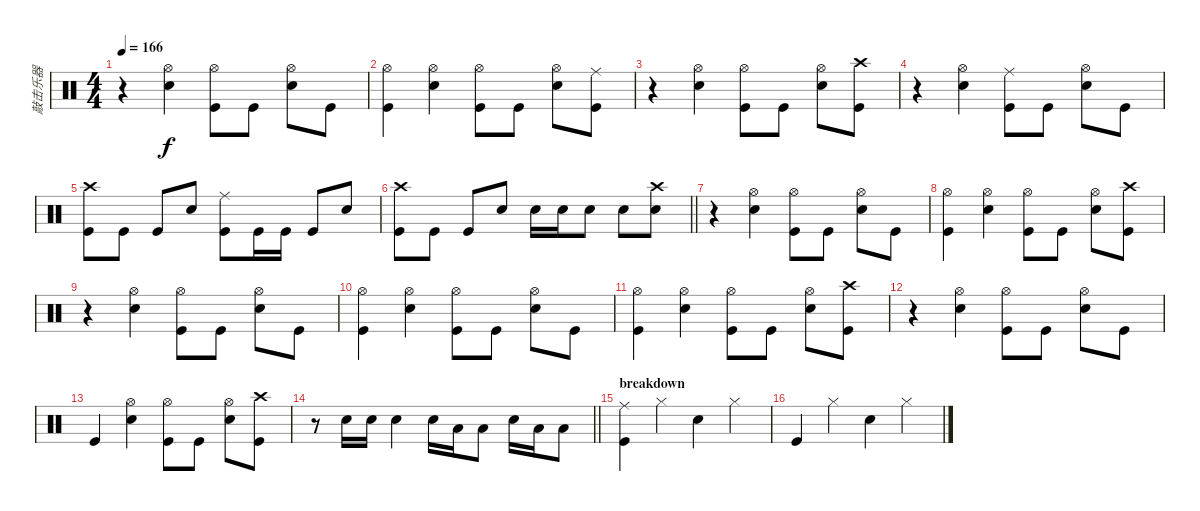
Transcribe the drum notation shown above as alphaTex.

\track ("敲击乐器" "敲击乐器") {instrument percussion}
\staff {score}
\articulation defaults
\ts (4 4)
\tempo 166
\clef neutral
\ks c
r.4{dy f} ("Hi-Hat (open)" "Snare (hit) 2").4 ("Kick (hit)" "Hi-Hat (open)").8 "Kick (hit)".8 ("Snare (hit) 2" "Hi-Hat (open)").8 "Kick (hit)".8 |
("Kick (hit)" "Hi-Hat (open)").4 ("Hi-Hat (open)" "Snare (hit) 2").4 ("Kick (hit)" "Hi-Hat (open)").8 "Kick (hit)".8 ("Snare (hit) 2" "Hi-Hat (open)").8 ("Kick (hit)" "Ride (middle)").8 |
r.4 ("Hi-Hat (open)" "Snare (hit) 2").4 ("Kick (hit)" "Hi-Hat (open)").8 "Kick (hit)".8 ("Snare (hit) 2" "Hi-Hat (open)").8 ("Kick (hit)" "Crash high (hit)").8 |
r.4 ("Hi-Hat (open)" "Snare (hit) 2").4 ("Ride (middle)" "Kick (hit)").8 "Kick (hit)".8 ("Snare (hit) 2" "Hi-Hat (open)").8 "Kick (hit)".8 |
("Kick (hit)" "Crash high (hit)").8 "Kick (hit)".8 "Kick (hit)".8 "Snare (hit) 2".8 ("Kick (hit)" "Ride (middle)").8 "Kick (hit)".16 "Kick (hit)".16 "Kick (hit)".8 "Snare (hit) 2".8 |
\barLineRight lightlight
("Kick (hit)" "Crash high (hit)").8 "Kick (hit)".8 "Kick (hit)".8 "Snare (hit) 2".8 "Snare (hit) 2".16 "Snare (hit) 2".16 "Snare (hit) 2".8 "Snare (hit) 2".8 ("Snare (hit) 2" "Crash high (hit)").8 |
r.4 ("Hi-Hat (open)" "Snare (hit) 2").4 ("Kick (hit)" "Hi-Hat (open)").8 "Kick (hit)".8 ("Snare (hit) 2" "Hi-Hat (open)").8 "Kick (hit)".8 |
("Kick (hit)" "Hi-Hat (open)").4 ("Hi-Hat (open)" "Snare (hit) 2").4 ("Kick (hit)" "Hi-Hat (open)").8 "Kick (hit)".8 ("Snare (hit) 2" "Hi-Hat (open)").8 ("Kick (hit)" "Crash high (hit)").8 |
r.4 ("Hi-Hat (open)" "Snare (hit) 2").4 ("Kick (hit)" "Hi-Hat (open)").8 "Kick (hit)".8 ("Snare (hit) 2" "Hi-Hat (open)").8 "Kick (hit)".8 |
("Kick (hit)" "Hi-Hat (open)").4 ("Hi-Hat (open)" "Snare (hit) 2").4 ("Kick (hit)" "Hi-Hat (open)").8 "Kick (hit)".8 ("Snare (hit) 2" "Hi-Hat (open)").8 "Kick (hit)".8 |
("Kick (hit)" "Hi-Hat (open)").4 ("Hi-Hat (open)" "Snare (hit) 2").4 ("Kick (hit)" "Hi-Hat (open)").8 "Kick (hit)".8 ("Snare (hit) 2" "Hi-Hat (open)").8 ("Kick (hit)" "Crash high (hit)").8 |
r.4 ("Hi-Hat (open)" "Snare (hit) 2").4 ("Hi-Hat (open)" "Kick (hit)").8 "Kick (hit)".8 ("Snare (hit) 2" "Hi-Hat (open)").8 "Kick (hit)".8 |
"Kick (hit)".4 ("Hi-Hat (open)" "Snare (hit) 2").4 ("Hi-Hat (open)" "Kick (hit)").8 "Kick (hit)".8 ("Snare (hit) 2" "Hi-Hat (open)").8 ("Kick (hit)" "Crash high (hit)").8 |
\barLineRight lightlight
r.8 "Snare (hit) 2".16 "Snare (hit) 2".16 "Snare (hit) 2".4 "Snare (hit) 2".16 "Low Tom (hit)".16 "Low Tom (hit)".8 "Snare (hit) 2".16 "Low Tom (hit)".16 "Low Tom (hit)".8 |
\section ("" "breakdown")
("Kick (hit)" "Ride (middle)").4 "Hi-Hat (closed)".4 "Snare (hit) 2".4 "Hi-Hat (closed)".4 |
"Kick (hit)".4 "Hi-Hat (closed)".4 "Snare (hit) 2".4 "Hi-Hat (closed)".4
